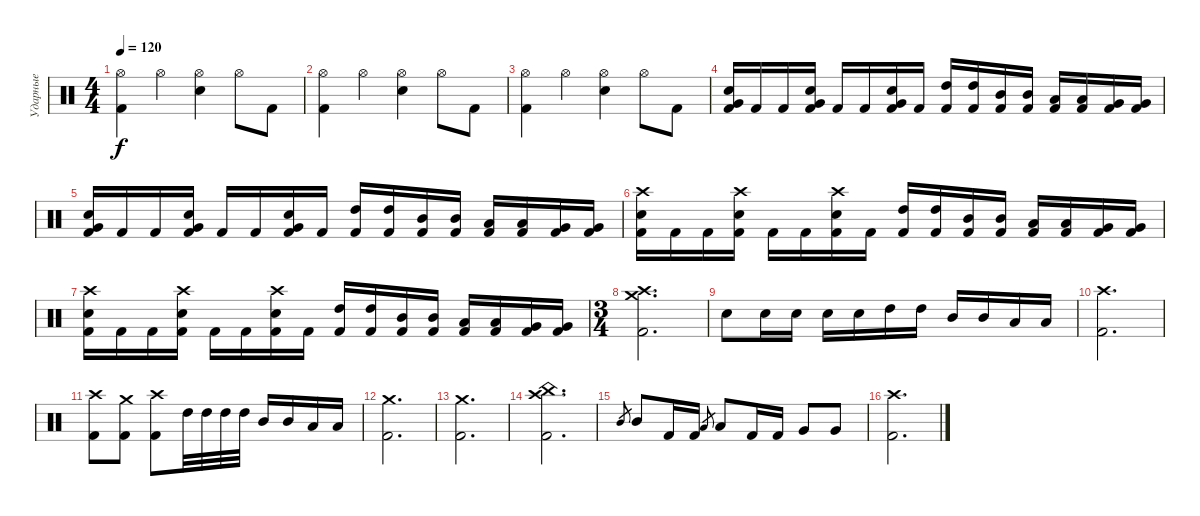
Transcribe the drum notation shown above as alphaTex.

\track ("Ударные" "Ударные") {instrument percussion}
\staff {score}
\articulation defaults
\ts (4 4)
\tempo 120
\clef neutral
\ks c
("Hi-Hat (open)" "Kick (hit) 2").4{dy f} "Hi-Hat (open)".4 ("Hi-Hat (open)" "Electric Snare (hit)").4 "Hi-Hat (open)".8 "Kick (hit) 2".8 |
("Hi-Hat (open)" "Kick (hit) 2").4 "Hi-Hat (open)".4 ("Hi-Hat (open)" "Electric Snare (hit)").4 "Hi-Hat (open)".8 "Kick (hit) 2".8 |
("Hi-Hat (open)" "Kick (hit) 2").4 "Hi-Hat (open)".4 ("Hi-Hat (open)" "Electric Snare (hit)").4 "Hi-Hat (open)".8 "Kick (hit) 2".8 |
("Kick (hit) 2" "Very Low Tom (hit)" "Electric Snare (hit)").16 "Kick (hit) 2".16 "Kick (hit) 2".16 ("Kick (hit) 2" "Very Low Tom (hit)" "Electric Snare (hit)").16 "Kick (hit) 2".16 "Kick (hit) 2".16 ("Kick (hit) 2" "Very Low Tom (hit)" "Electric Snare (hit)").16 "Kick (hit) 2".16 ("Kick (hit) 2" "High Tom (hit)").16 ("Kick (hit) 2" "High Tom (hit)").16 ("Kick (hit) 2" "Mid Tom (hit)").16 ("Kick (hit) 2" "Mid Tom (hit)").16 ("Kick (hit) 2" "Low Tom (hit)").16 ("Kick (hit) 2" "Low Tom (hit)").16 ("Kick (hit) 2" "Very Low Tom (hit)").16 ("Kick (hit) 2" "Very Low Tom (hit)").16 |
("Kick (hit) 2" "Very Low Tom (hit)" "Electric Snare (hit)").16 "Kick (hit) 2".16 "Kick (hit) 2".16 ("Kick (hit) 2" "Very Low Tom (hit)" "Electric Snare (hit)").16 "Kick (hit) 2".16 "Kick (hit) 2".16 ("Kick (hit) 2" "Very Low Tom (hit)" "Electric Snare (hit)").16 "Kick (hit) 2".16 ("Kick (hit) 2" "High Tom (hit)").16 ("Kick (hit) 2" "High Tom (hit)").16 ("Kick (hit) 2" "Mid Tom (hit)").16 ("Kick (hit) 2" "Mid Tom (hit)").16 ("Kick (hit) 2" "Low Tom (hit)").16 ("Kick (hit) 2" "Low Tom (hit)").16 ("Kick (hit) 2" "Very Low Tom (hit)").16 ("Kick (hit) 2" "Very Low Tom (hit)").16 |
("Kick (hit) 2" "Crash high (hit)" "Electric Snare (hit)").16 "Kick (hit) 2".16 "Kick (hit) 2".16 ("Kick (hit) 2" "Crash high (hit)" "Electric Snare (hit)").16 "Kick (hit) 2".16 "Kick (hit) 2".16 ("Kick (hit) 2" "Crash high (hit)" "Electric Snare (hit)").16 "Kick (hit) 2".16 ("Kick (hit) 2" "High Tom (hit)").16 ("Kick (hit) 2" "High Tom (hit)").16 ("Kick (hit) 2" "Mid Tom (hit)").16 ("Kick (hit) 2" "Mid Tom (hit)").16 ("Kick (hit) 2" "Low Tom (hit)").16 ("Kick (hit) 2" "Low Tom (hit)").16 ("Kick (hit) 2" "Very Low Tom (hit)").16 ("Kick (hit) 2" "Very Low Tom (hit)").16 |
("Kick (hit) 2" "Crash high (hit)" "Electric Snare (hit)").16 "Kick (hit) 2".16 "Kick (hit) 2".16 ("Kick (hit) 2" "Crash high (hit)" "Electric Snare (hit)").16 "Kick (hit) 2".16 "Kick (hit) 2".16 ("Kick (hit) 2" "Crash high (hit)" "Electric Snare (hit)").16 "Kick (hit) 2".16 ("Kick (hit) 2" "High Tom (hit)").16 ("Kick (hit) 2" "High Tom (hit)").16 ("Kick (hit) 2" "Mid Tom (hit)").16 ("Kick (hit) 2" "Mid Tom (hit)").16 ("Kick (hit) 2" "Low Tom (hit)").16 ("Kick (hit) 2" "Low Tom (hit)").16 ("Kick (hit) 2" "Very Low Tom (hit)").16 ("Kick (hit) 2" "Very Low Tom (hit)").16 |
\ts (3 4)
("Kick (hit) 2" "Crash high (hit)" "Crash medium (hit)").2{d} |
"Electric Snare (hit)".8 "Electric Snare (hit)".16 "Electric Snare (hit)".16 "Electric Snare (hit)".16 "Electric Snare (hit)".16 "High Tom (hit)".16 "High Tom (hit)".16 "Mid Tom (hit)".16 "Mid Tom (hit)".16 "Low Tom (hit)".16 "Low Tom (hit)".16 |
("Kick (hit) 2" "Crash high (hit)").2{d} |
("Kick (hit) 2" "Crash high (hit)").8 ("Kick (hit) 2" "Crash medium (hit)").8 ("Kick (hit) 2" "Crash high (hit)").8 "High Tom (hit)".32 "High Tom (hit)".32 "High Tom (hit)".32 "High Tom (hit)".32 "Mid Tom (hit)".16 "Mid Tom (hit)".16 "Low Tom (hit)".16 "Low Tom (hit)".16 |
("Kick (hit) 2" "Crash medium (hit)").2{d} |
("Kick (hit) 2" "Crash medium (hit)").2{d} |
("Kick (hit) 2" "Crash high (hit)" "China (hit)").2{d} |
"Mid Tom (hit)".8{gr} "Mid Tom (hit)".8 "Kick (hit) 2".16 "Kick (hit) 2".16 "Low Tom (hit)".8{gr} "Low Tom (hit)".8 "Kick (hit) 2".16 "Kick (hit) 2".16 "Very Low Tom (hit)".8 "Very Low Tom (hit)".8 |
("Kick (hit) 2" "Crash high (hit)").2{d}
